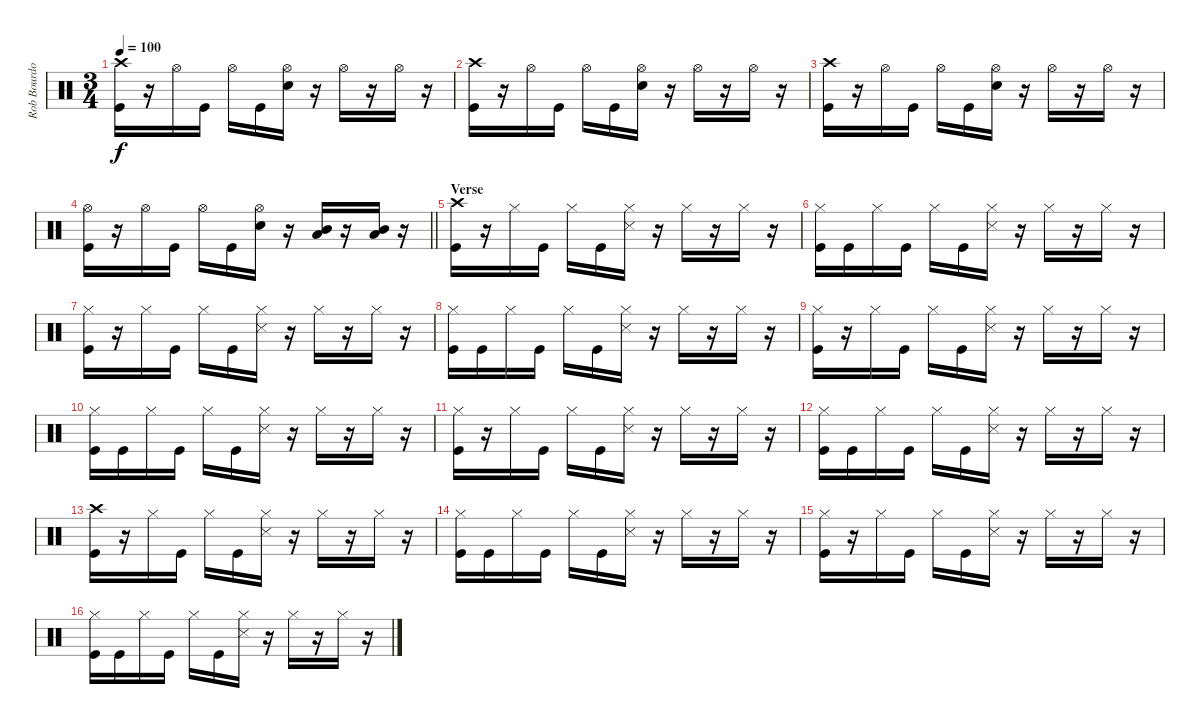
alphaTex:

\track ("Rob Bourdon" "Rob Bourdo") {instrument percussion}
\staff {score}
\articulation defaults
\ts (3 4)
\tempo 100
\clef neutral
\ks c
("Crash high (hit)" "Kick (hit)").16{dy f} r.16 "Hi-Hat (open)".16 "Kick (hit)".16 "Hi-Hat (open)".16 "Kick (hit)".16 ("Hi-Hat (open)" "Snare (hit) 2").16 r.16 "Hi-Hat (open)".16 r.16 "Hi-Hat (open)".16 r.16 |
("Crash high (hit)" "Kick (hit)").16 r.16 "Hi-Hat (open)".16 "Kick (hit)".16 "Hi-Hat (open)".16 "Kick (hit)".16 ("Hi-Hat (open)" "Snare (hit) 2").16 r.16 "Hi-Hat (open)".16 r.16 "Hi-Hat (open)".16 r.16 |
("Crash high (hit)" "Kick (hit)").16 r.16 "Hi-Hat (open)".16 "Kick (hit)".16 "Hi-Hat (open)".16 "Kick (hit)".16 ("Hi-Hat (open)" "Snare (hit) 2").16 r.16 "Hi-Hat (open)".16 r.16 "Hi-Hat (open)".16 r.16 |
\barLineRight lightlight
("Hi-Hat (open)" "Kick (hit)").16 r.16 "Hi-Hat (open)".16 "Kick (hit)".16 "Hi-Hat (open)".16 "Kick (hit)".16 ("Hi-Hat (open)" "Snare (hit) 2").16 r.16 ("Mid Tom (hit)" "Low Tom (hit)").16 r.16 ("Mid Tom (hit)" "Low Tom (hit)").16 r.16 |
\section ("" "Verse")
("Crash high (hit)" "Kick (hit)").16 r.16 "Hi-Hat (closed)".16 "Kick (hit)".16 "Hi-Hat (closed)".16 "Kick (hit)".16 ("Hi-Hat (closed)" "Snare (side stick) 3").16 r.16 "Hi-Hat (closed)".16 r.16 "Hi-Hat (closed)".16 r.16 |
("Hi-Hat (closed)" "Kick (hit)").16 "Kick (hit)".16 "Hi-Hat (closed)".16 "Kick (hit)".16 "Hi-Hat (closed)".16 "Kick (hit)".16 ("Hi-Hat (closed)" "Snare (side stick) 3").16 r.16 "Hi-Hat (closed)".16 r.16 "Hi-Hat (closed)".16 r.16 |
("Hi-Hat (closed)" "Kick (hit)").16 r.16 "Hi-Hat (closed)".16 "Kick (hit)".16 "Hi-Hat (closed)".16 "Kick (hit)".16 ("Hi-Hat (closed)" "Snare (side stick) 3").16 r.16 "Hi-Hat (closed)".16 r.16 "Hi-Hat (closed)".16 r.16 |
("Hi-Hat (closed)" "Kick (hit)").16 "Kick (hit)".16 "Hi-Hat (closed)".16 "Kick (hit)".16 "Hi-Hat (closed)".16 "Kick (hit)".16 ("Hi-Hat (closed)" "Snare (side stick) 3").16 r.16 "Hi-Hat (closed)".16 r.16 "Hi-Hat (closed)".16 r.16 |
("Hi-Hat (closed)" "Kick (hit)").16 r.16 "Hi-Hat (closed)".16 "Kick (hit)".16 "Hi-Hat (closed)".16 "Kick (hit)".16 ("Hi-Hat (closed)" "Snare (side stick) 3").16 r.16 "Hi-Hat (closed)".16 r.16 "Hi-Hat (closed)".16 r.16 |
("Hi-Hat (closed)" "Kick (hit)").16 "Kick (hit)".16 "Hi-Hat (closed)".16 "Kick (hit)".16 "Hi-Hat (closed)".16 "Kick (hit)".16 ("Hi-Hat (closed)" "Snare (side stick) 3").16 r.16 "Hi-Hat (closed)".16 r.16 "Hi-Hat (closed)".16 r.16 |
("Hi-Hat (closed)" "Kick (hit)").16 r.16 "Hi-Hat (closed)".16 "Kick (hit)".16 "Hi-Hat (closed)".16 "Kick (hit)".16 ("Hi-Hat (closed)" "Snare (side stick) 3").16 r.16 "Hi-Hat (closed)".16 r.16 "Hi-Hat (closed)".16 r.16 |
("Hi-Hat (closed)" "Kick (hit)").16 "Kick (hit)".16 "Hi-Hat (closed)".16 "Kick (hit)".16 "Hi-Hat (closed)".16 "Kick (hit)".16 ("Hi-Hat (closed)" "Snare (side stick) 3").16 r.16 "Hi-Hat (closed)".16 r.16 "Hi-Hat (closed)".16 r.16 |
("Crash high (hit)" "Kick (hit)").16 r.16 "Hi-Hat (closed)".16 "Kick (hit)".16 "Hi-Hat (closed)".16 "Kick (hit)".16 ("Hi-Hat (closed)" "Snare (side stick) 3").16 r.16 "Hi-Hat (closed)".16 r.16 "Hi-Hat (closed)".16 r.16 |
("Hi-Hat (closed)" "Kick (hit)").16 "Kick (hit)".16 "Hi-Hat (closed)".16 "Kick (hit)".16 "Hi-Hat (closed)".16 "Kick (hit)".16 ("Hi-Hat (closed)" "Snare (side stick) 3").16 r.16 "Hi-Hat (closed)".16 r.16 "Hi-Hat (closed)".16 r.16 |
("Hi-Hat (closed)" "Kick (hit)").16 r.16 "Hi-Hat (closed)".16 "Kick (hit)".16 "Hi-Hat (closed)".16 "Kick (hit)".16 ("Hi-Hat (closed)" "Snare (side stick) 3").16 r.16 "Hi-Hat (closed)".16 r.16 "Hi-Hat (closed)".16 r.16 |
("Hi-Hat (closed)" "Kick (hit)").16 "Kick (hit)".16 "Hi-Hat (closed)".16 "Kick (hit)".16 "Hi-Hat (closed)".16 "Kick (hit)".16 ("Hi-Hat (closed)" "Snare (side stick) 3").16 r.16 "Hi-Hat (closed)".16 r.16 "Hi-Hat (closed)".16 r.16
